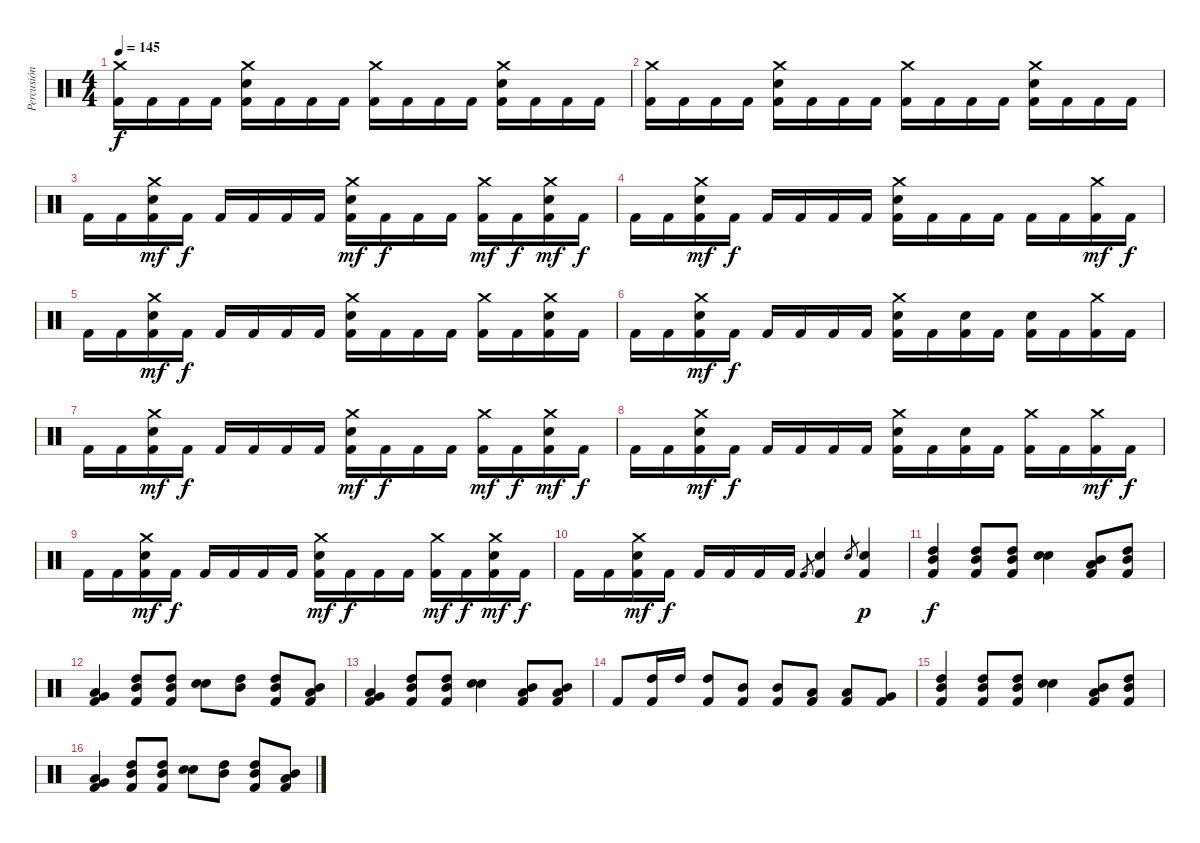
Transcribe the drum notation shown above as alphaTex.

\track ("Percusión" "Percusión") {instrument percussion}
\staff {score}
\articulation defaults
\ts (4 4)
\tempo 145
\clef neutral
\ks c
("Crash medium (hit)" "Kick (hit) 2").16{dy f} "Kick (hit) 2".16 "Kick (hit) 2".16 "Kick (hit) 2".16 ("Crash medium (hit)" "Snare (hit) 2" "Kick (hit) 2").16 "Kick (hit) 2".16 "Kick (hit) 2".16 "Kick (hit) 2".16 ("Crash medium (hit)" "Kick (hit) 2").16 "Kick (hit) 2".16 "Kick (hit) 2".16 "Kick (hit) 2".16 ("Crash medium (hit)" "Snare (hit) 2" "Kick (hit) 2").16 "Kick (hit) 2".16 "Kick (hit) 2".16 "Kick (hit) 2".16 |
("Crash medium (hit)" "Kick (hit) 2").16 "Kick (hit) 2".16 "Kick (hit) 2".16 "Kick (hit) 2".16 ("Crash medium (hit)" "Snare (hit) 2" "Kick (hit) 2").16 "Kick (hit) 2".16 "Kick (hit) 2".16 "Kick (hit) 2".16 ("Crash medium (hit)" "Kick (hit) 2").16 "Kick (hit) 2".16 "Kick (hit) 2".16 "Kick (hit) 2".16 ("Crash medium (hit)" "Snare (hit) 2" "Kick (hit) 2").16 "Kick (hit) 2".16 "Kick (hit) 2".16 "Kick (hit) 2".16 |
"Kick (hit) 2".16 "Kick (hit) 2".16 ("Crash medium (hit)" "Snare (hit) 2" "Kick (hit) 2").16{dy mf} "Kick (hit) 2".16{dy f} "Kick (hit) 2".16 "Kick (hit) 2".16 "Kick (hit) 2".16 "Kick (hit) 2".16 ("Crash medium (hit)" "Snare (hit) 2" "Kick (hit) 2").16{dy mf} "Kick (hit) 2".16{dy f} "Kick (hit) 2".16 "Kick (hit) 2".16 ("Crash medium (hit)" "Kick (hit) 2").16{dy mf} "Kick (hit) 2".16{dy f} ("Crash medium (hit)" "Snare (hit) 2" "Kick (hit) 2").16{dy mf} "Kick (hit) 2".16{dy f} |
"Kick (hit) 2".16 "Kick (hit) 2".16 ("Crash medium (hit)" "Snare (hit) 2" "Kick (hit) 2").16{dy mf} "Kick (hit) 2".16{dy f} "Kick (hit) 2".16 "Kick (hit) 2".16 "Kick (hit) 2".16 "Kick (hit) 2".16 ("Crash medium (hit)" "Snare (hit) 2" "Kick (hit) 2").16 "Kick (hit) 2".16 "Kick (hit) 2".16 "Kick (hit) 2".16 "Kick (hit) 2".16 "Kick (hit) 2".16 ("Crash medium (hit)" "Kick (hit) 2").16{dy mf} "Kick (hit) 2".16{dy f} |
"Kick (hit) 2".16 "Kick (hit) 2".16 ("Crash medium (hit)" "Snare (hit) 2" "Kick (hit) 2").16{dy mf} "Kick (hit) 2".16{dy f} "Kick (hit) 2".16 "Kick (hit) 2".16 "Kick (hit) 2".16 "Kick (hit) 2".16 ("Crash medium (hit)" "Snare (hit) 2" "Kick (hit) 2").16 "Kick (hit) 2".16 "Kick (hit) 2".16 "Kick (hit) 2".16 ("Crash medium (hit)" "Kick (hit) 2").16 "Kick (hit) 2".16 ("Crash medium (hit)" "Snare (hit) 2" "Kick (hit) 2").16 "Kick (hit) 2".16 |
"Kick (hit) 2".16 "Kick (hit) 2".16 ("Crash medium (hit)" "Snare (hit) 2" "Kick (hit) 2").16{dy mf} "Kick (hit) 2".16{dy f} "Kick (hit) 2".16 "Kick (hit) 2".16 "Kick (hit) 2".16 "Kick (hit) 2".16 ("Crash medium (hit)" "Snare (hit) 2" "Kick (hit) 2").16 "Kick (hit) 2".16 ("Snare (hit) 2" "Kick (hit) 2").16 "Kick (hit) 2".16 ("Snare (hit) 2" "Kick (hit) 2").16 "Kick (hit) 2".16 ("Crash medium (hit)" "Kick (hit) 2").16 "Kick (hit) 2".16 |
"Kick (hit) 2".16 "Kick (hit) 2".16 ("Crash medium (hit)" "Snare (hit) 2" "Kick (hit) 2").16{dy mf} "Kick (hit) 2".16{dy f} "Kick (hit) 2".16 "Kick (hit) 2".16 "Kick (hit) 2".16 "Kick (hit) 2".16 ("Crash medium (hit)" "Snare (hit) 2" "Kick (hit) 2").16{dy mf} "Kick (hit) 2".16{dy f} "Kick (hit) 2".16 "Kick (hit) 2".16 ("Crash medium (hit)" "Kick (hit) 2").16{dy mf} "Kick (hit) 2".16{dy f} ("Crash medium (hit)" "Snare (hit) 2" "Kick (hit) 2").16{dy mf} "Kick (hit) 2".16{dy f} |
"Kick (hit) 2".16 "Kick (hit) 2".16 ("Crash medium (hit)" "Snare (hit) 2" "Kick (hit) 2").16{dy mf} "Kick (hit) 2".16{dy f} "Kick (hit) 2".16 "Kick (hit) 2".16 "Kick (hit) 2".16 "Kick (hit) 2".16 ("Crash medium (hit)" "Snare (hit) 2" "Kick (hit) 2").16 "Kick (hit) 2".16 ("Snare (hit) 2" "Kick (hit) 2").16 "Kick (hit) 2".16 ("Crash medium (hit)" "Kick (hit) 2").16 "Kick (hit) 2".16 ("Crash medium (hit)" "Kick (hit) 2").16{dy mf} "Kick (hit) 2".16{dy f} |
"Kick (hit) 2".16 "Kick (hit) 2".16 ("Crash medium (hit)" "Snare (hit) 2" "Kick (hit) 2").16{dy mf} "Kick (hit) 2".16{dy f} "Kick (hit) 2".16 "Kick (hit) 2".16 "Kick (hit) 2".16 "Kick (hit) 2".16 ("Crash medium (hit)" "Snare (hit) 2" "Kick (hit) 2").16{dy mf} "Kick (hit) 2".16{dy f} "Kick (hit) 2".16 "Kick (hit) 2".16 ("Crash medium (hit)" "Kick (hit) 2").16{dy mf} "Kick (hit) 2".16{dy f} ("Crash medium (hit)" "Snare (hit) 2" "Kick (hit) 2").16{dy mf} "Kick (hit) 2".16{dy f} |
"Kick (hit) 2".16 "Kick (hit) 2".16 ("Crash medium (hit)" "Snare (hit) 2" "Kick (hit) 2").16{dy mf} "Kick (hit) 2".16{dy f} "Kick (hit) 2".16 "Kick (hit) 2".16 "Kick (hit) 2".16 "Kick (hit) 2".16 "Kick (hit) 2".8{gr} ("Snare (hit) 2" "Kick (hit) 2").4 "Snare (hit) 2".8{gr} ("Snare (hit) 2" "Kick (hit) 2").4{dy p} |
("High Tom (hit)" "Mid Tom (hit)" "Kick (hit) 2").4{dy f} ("High Tom (hit)" "Mid Tom (hit)" "Kick (hit) 2").8 ("High Tom (hit)" "Mid Tom (hit)" "Kick (hit) 2").8 ("Snare (hit) 2" "Snare (hit) 2").4 ("Mid Tom (hit)" "Low Tom (hit)" "Kick (hit) 2").8 ("High Tom (hit)" "Mid Tom (hit)" "Kick (hit) 2").8 |
("Very Low Tom (hit)" "Low Tom (hit)" "Kick (hit) 2").4 ("High Tom (hit)" "Mid Tom (hit)" "Kick (hit) 2").8 ("High Tom (hit)" "Mid Tom (hit)" "Kick (hit) 2").8 ("Snare (hit) 2" "Snare (hit) 2").8 ("High Tom (hit)" "Mid Tom (hit)").8 ("High Tom (hit)" "Mid Tom (hit)" "Kick (hit) 2").8 ("Mid Tom (hit)" "Low Tom (hit)" "Kick (hit) 2").8 |
("Low Tom (hit)" "Very Low Tom (hit)" "Kick (hit) 2").4 ("High Tom (hit)" "Mid Tom (hit)" "Kick (hit) 2").8 ("High Tom (hit)" "Mid Tom (hit)" "Kick (hit) 2").8 ("Snare (hit) 2" "Snare (hit) 2").4 ("Mid Tom (hit)" "Low Tom (hit)" "Kick (hit) 2").8 ("Mid Tom (hit)" "Low Tom (hit)" "Kick (hit) 2").8 |
"Kick (hit) 2".8 ("High Tom (hit)" "Kick (hit) 2").16 "High Tom (hit)".16 ("High Tom (hit)" "Kick (hit) 2").8 ("Mid Tom (hit)" "Kick (hit) 2").8 ("Mid Tom (hit)" "Kick (hit) 2").8 ("Low Tom (hit)" "Kick (hit) 2").8 ("Low Tom (hit)" "Kick (hit) 2").8 ("Very Low Tom (hit)" "Kick (hit) 2").8 |
("High Tom (hit)" "Mid Tom (hit)" "Kick (hit) 2").4 ("High Tom (hit)" "Mid Tom (hit)" "Kick (hit) 2").8 ("High Tom (hit)" "Mid Tom (hit)" "Kick (hit) 2").8 ("Snare (hit) 2" "Snare (hit) 2").4 ("Mid Tom (hit)" "Low Tom (hit)" "Kick (hit) 2").8 ("High Tom (hit)" "Mid Tom (hit)" "Kick (hit) 2").8 |
("Very Low Tom (hit)" "Low Tom (hit)" "Kick (hit) 2").4 ("High Tom (hit)" "Mid Tom (hit)" "Kick (hit) 2").8 ("High Tom (hit)" "Mid Tom (hit)" "Kick (hit) 2").8 ("Snare (hit) 2" "Snare (hit) 2").8 ("High Tom (hit)" "Mid Tom (hit)").8 ("High Tom (hit)" "Mid Tom (hit)" "Kick (hit) 2").8 ("Mid Tom (hit)" "Low Tom (hit)" "Kick (hit) 2").8
